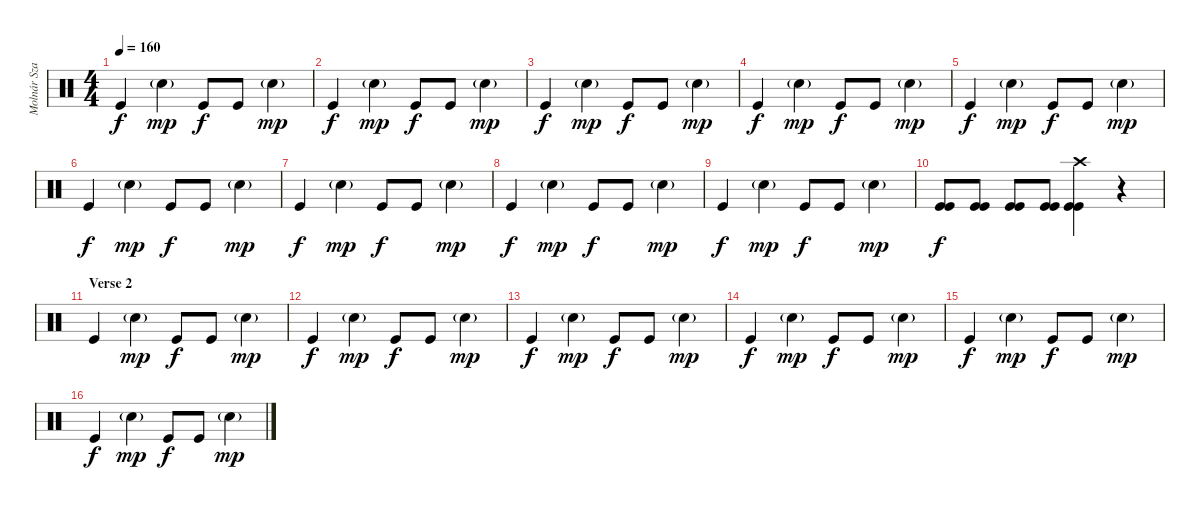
\track ("Molnár Szabolcs" "Molnár Sza") {instrument percussion}
\staff {score}
\articulation defaults
\ts (4 4)
\tempo 160
\clef neutral
\ks c "Kick (hit)".4{dy f} "Snare (hit) 2"{g}.4{dy mp} "Kick (hit)".8{dy f} "Kick (hit)".8 "Snare (hit) 2"{g}.4{dy mp}
|
"Kick (hit)".4{dy f} "Snare (hit) 2"{g}.4{dy mp} "Kick (hit)".8{dy f} "Kick (hit)".8 "Snare (hit) 2"{g}.4{dy mp} |
"Kick (hit)".4{dy f} "Snare (hit) 2"{g}.4{dy mp} "Kick (hit)".8{dy f} "Kick (hit)".8 "Snare (hit) 2"{g}.4{dy mp} |
"Kick (hit)".4{dy f} "Snare (hit) 2"{g}.4{dy mp} "Kick (hit)".8{dy f} "Kick (hit)".8 "Snare (hit) 2"{g}.4{dy mp} |
"Kick (hit)".4{dy f} "Snare (hit) 2"{g}.4{dy mp} "Kick (hit)".8{dy f} "Kick (hit)".8 "Snare (hit) 2"{g}.4{dy mp} |
"Kick (hit)".4{dy f} "Snare (hit) 2"{g}.4{dy mp} "Kick (hit)".8{dy f} "Kick (hit)".8 "Snare (hit) 2"{g}.4{dy mp} |
"Kick (hit)".4{dy f} "Snare (hit) 2"{g}.4{dy mp} "Kick (hit)".8{dy f} "Kick (hit)".8 "Snare (hit) 2"{g}.4{dy mp} |
"Kick (hit)".4{dy f} "Snare (hit) 2"{g}.4{dy mp} "Kick (hit)".8{dy f} "Kick (hit)".8 "Snare (hit) 2"{g}.4{dy mp} |
"Kick (hit)".4{dy f} "Snare (hit) 2"{g}.4{dy mp} "Kick (hit)".8{dy f} "Kick (hit)".8 "Snare (hit) 2"{g}.4{dy mp} |
("Kick (hit)" "Kick (hit)").8{dy f} ("Kick (hit)" "Kick (hit)").8 ("Kick (hit)" "Kick (hit)").8 ("Kick (hit)" "Kick (hit)").8 ("Kick (hit)" "Kick (hit)" "Crash high (hit)").4 r.4 |
\section ("" "Verse 2")
"Kick (hit)".4 "Snare (hit) 2"{g}.4{dy mp} "Kick (hit)".8{dy f} "Kick (hit)".8 "Snare (hit) 2"{g}.4{dy mp} |
"Kick (hit)".4{dy f} "Snare (hit) 2"{g}.4{dy mp} "Kick (hit)".8{dy f} "Kick (hit)".8 "Snare (hit) 2"{g}.4{dy mp} |
"Kick (hit)".4{dy f} "Snare (hit) 2"{g}.4{dy mp} "Kick (hit)".8{dy f} "Kick (hit)".8 "Snare (hit) 2"{g}.4{dy mp} |
"Kick (hit)".4{dy f} "Snare (hit) 2"{g}.4{dy mp} "Kick (hit)".8{dy f} "Kick (hit)".8 "Snare (hit) 2"{g}.4{dy mp} |
"Kick (hit)".4{dy f} "Snare (hit) 2"{g}.4{dy mp} "Kick (hit)".8{dy f} "Kick (hit)".8 "Snare (hit) 2"{g}.4{dy mp} |
"Kick (hit)".4{dy f} "Snare (hit) 2"{g}.4{dy mp} "Kick (hit)".8{dy f} "Kick (hit)".8 "Snare (hit) 2"{g}.4{dy mp}
